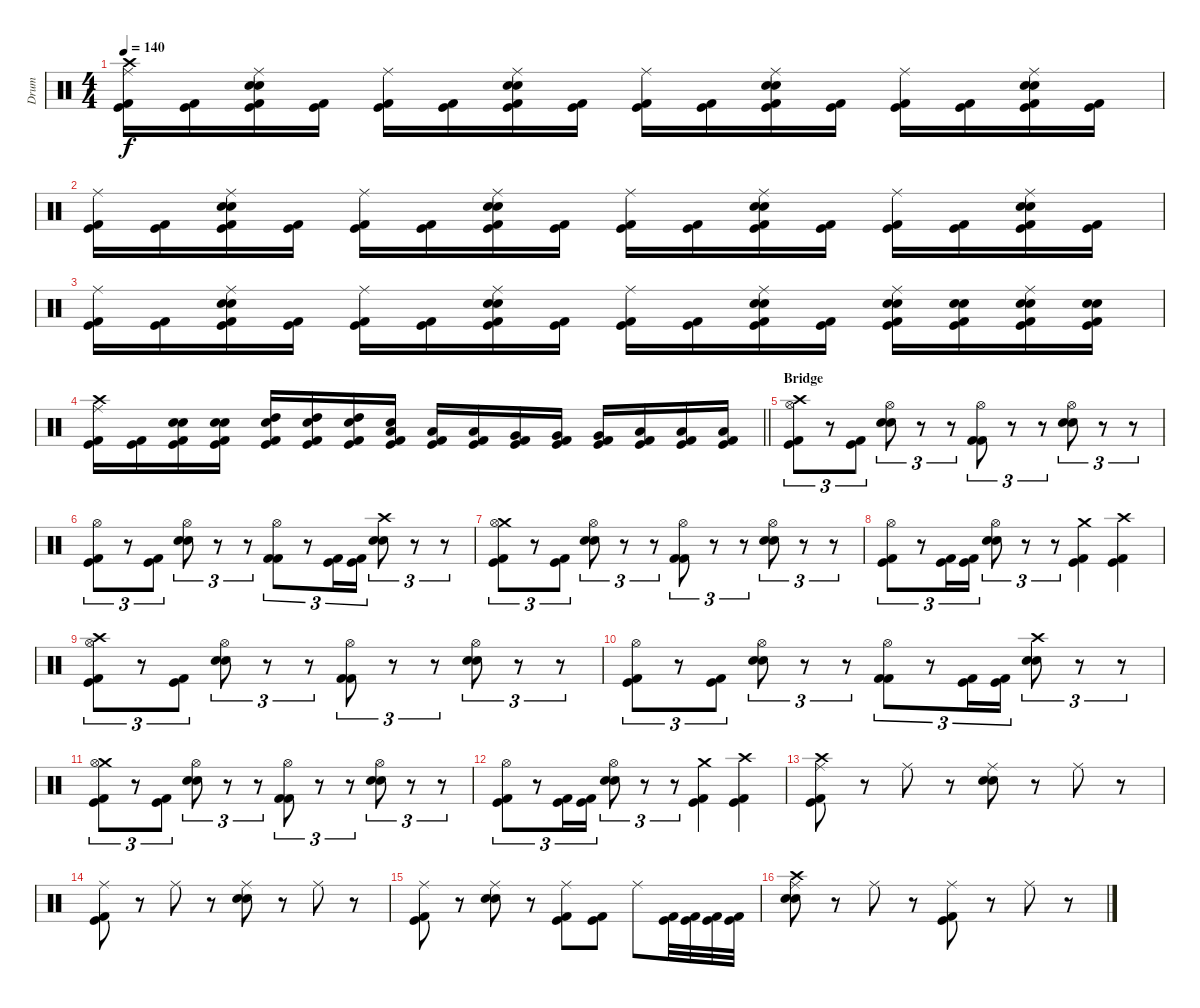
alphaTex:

\track ("Drum" "Drum") {instrument percussion}
\staff {score}
\articulation defaults
\ts (4 4)
\tempo 140
\clef neutral
\ks c
("Crash high (hit)" "Ride (middle)" "Kick (hit)" "Kick (hit) 2").16{dy f} ("Kick (hit)" "Kick (hit) 2").16 ("Ride (middle)" "Snare (hit) 2" "Electric Snare (hit)" "Kick (hit)" "Kick (hit) 2").16 ("Kick (hit)" "Kick (hit) 2").16 ("Ride (middle)" "Kick (hit)" "Kick (hit) 2").16 ("Kick (hit)" "Kick (hit) 2").16 ("Ride (middle)" "Snare (hit) 2" "Electric Snare (hit)" "Kick (hit)" "Kick (hit) 2").16 ("Kick (hit)" "Kick (hit) 2").16 ("Ride (middle)" "Kick (hit)" "Kick (hit) 2").16 ("Kick (hit)" "Kick (hit) 2").16 ("Ride (middle)" "Snare (hit) 2" "Electric Snare (hit)" "Kick (hit)" "Kick (hit) 2").16 ("Kick (hit)" "Kick (hit) 2").16 ("Ride (middle)" "Kick (hit)" "Kick (hit) 2").16 ("Kick (hit)" "Kick (hit) 2").16 ("Ride (middle)" "Snare (hit) 2" "Electric Snare (hit)" "Kick (hit)" "Kick (hit) 2").16 ("Kick (hit)" "Kick (hit) 2").16 |
("Ride (middle)" "Kick (hit)" "Kick (hit) 2").16 ("Kick (hit)" "Kick (hit) 2").16 ("Ride (middle)" "Snare (hit) 2" "Electric Snare (hit)" "Kick (hit)" "Kick (hit) 2").16 ("Kick (hit)" "Kick (hit) 2").16 ("Ride (middle)" "Kick (hit)" "Kick (hit) 2").16 ("Kick (hit)" "Kick (hit) 2").16 ("Ride (middle)" "Snare (hit) 2" "Electric Snare (hit)" "Kick (hit)" "Kick (hit) 2").16 ("Kick (hit)" "Kick (hit) 2").16 ("Ride (middle)" "Kick (hit)" "Kick (hit) 2").16 ("Kick (hit)" "Kick (hit) 2").16 ("Ride (middle)" "Snare (hit) 2" "Electric Snare (hit)" "Kick (hit)" "Kick (hit) 2").16 ("Kick (hit)" "Kick (hit) 2").16 ("Ride (middle)" "Kick (hit)" "Kick (hit) 2").16 ("Kick (hit)" "Kick (hit) 2").16 ("Ride (middle)" "Snare (hit) 2" "Electric Snare (hit)" "Kick (hit)" "Kick (hit) 2").16 ("Kick (hit)" "Kick (hit) 2").16 |
("Ride (middle)" "Kick (hit)" "Kick (hit) 2").16 ("Kick (hit)" "Kick (hit) 2").16 ("Ride (middle)" "Snare (hit) 2" "Electric Snare (hit)" "Kick (hit)" "Kick (hit) 2").16 ("Kick (hit)" "Kick (hit) 2").16 ("Ride (middle)" "Kick (hit)" "Kick (hit) 2").16 ("Kick (hit)" "Kick (hit) 2").16 ("Ride (middle)" "Snare (hit) 2" "Electric Snare (hit)" "Kick (hit)" "Kick (hit) 2").16 ("Kick (hit)" "Kick (hit) 2").16 ("Ride (middle)" "Kick (hit)" "Kick (hit) 2").16 ("Kick (hit)" "Kick (hit) 2").16 ("Ride (middle)" "Snare (hit) 2" "Electric Snare (hit)" "Kick (hit)" "Kick (hit) 2").16 ("Kick (hit)" "Kick (hit) 2").16 ("Ride (middle)" "Snare (hit) 2" "Electric Snare (hit)" "Kick (hit)" "Kick (hit) 2").16 ("Snare (hit) 2" "Electric Snare (hit)" "Kick (hit)" "Kick (hit) 2").16 ("Ride (middle)" "Snare (hit) 2" "Electric Snare (hit)" "Kick (hit)" "Kick (hit) 2").16 ("Snare (hit) 2" "Electric Snare (hit)" "Kick (hit)" "Kick (hit) 2").16 |
\barLineRight lightlight
("Crash high (hit)" "Ride (middle)" "Kick (hit)" "Kick (hit) 2").16 ("Kick (hit)" "Kick (hit) 2").16 ("Snare (hit) 2" "Electric Snare (hit)" "Kick (hit)" "Kick (hit) 2").16 ("Snare (hit) 2" "Electric Snare (hit)" "Kick (hit)" "Kick (hit) 2").16 ("High Tom (hit)" "Electric Snare (hit)" "Kick (hit)" "Kick (hit) 2").16 ("High Tom (hit)" "Electric Snare (hit)" "Kick (hit)" "Kick (hit) 2").16 ("High Tom (hit)" "Electric Snare (hit)" "Kick (hit)" "Kick (hit) 2").16 ("Low Tom (hit)" "Electric Snare (hit)" "Kick (hit)" "Kick (hit) 2").16 ("Low Tom (hit)" "Kick (hit)" "Kick (hit) 2").16 ("Low Tom (hit)" "Kick (hit)" "Kick (hit) 2").16 ("Very Low Tom (hit)" "Kick (hit)" "Kick (hit) 2").16 ("Very Low Tom (hit)" "Kick (hit)" "Kick (hit) 2").16 ("Very Low Tom (hit)" "Kick (hit)" "Kick (hit) 2").16 ("Low Floor Tom (hit)" "Kick (hit)" "Kick (hit) 2").16 ("Low Floor Tom (hit)" "Kick (hit)" "Kick (hit) 2").16 ("Low Floor Tom (hit)" "Kick (hit)" "Kick (hit) 2").16 |
\section ("" "Bridge")
("Crash high (hit)" "Hi-Hat (open)" "Kick (hit)" "Kick (hit) 2").8{tu (3 2)} r.8{tu (3 2)} ("Kick (hit)" "Kick (hit) 2").8{tu (3 2)} ("Hi-Hat (open)" "Snare (hit) 2" "Electric Snare (hit)").8{tu (3 2)} r.8{tu (3 2)} r.8{tu (3 2)} ("Hi-Hat (open)" "Kick (hit) 2" "Kick (hit) 2").8{tu (3 2)} r.8{tu (3 2)} r.8{tu (3 2)} ("Hi-Hat (open)" "Snare (hit) 2" "Electric Snare (hit)").8{tu (3 2)} r.8{tu (3 2)} r.8{tu (3 2)} |
("Hi-Hat (open)" "Kick (hit)" "Kick (hit) 2").8{tu (3 2)} r.8{tu (3 2)} ("Kick (hit)" "Kick (hit) 2").8{tu (3 2)} ("Hi-Hat (open)" "Snare (hit) 2" "Electric Snare (hit)").8{tu (3 2)} r.8{tu (3 2)} r.8{tu (3 2)} ("Hi-Hat (open)" "Kick (hit) 2" "Kick (hit) 2").8{tu (3 2)} r.8{tu (3 2)} ("Kick (hit)" "Kick (hit) 2").16{tu (3 2)} ("Kick (hit)" "Kick (hit) 2").16{tu (3 2)} ("Crash high (hit)" "Snare (hit) 2" "Electric Snare (hit)").8{tu (3 2)} r.8{tu (3 2)} r.8{tu (3 2)} |
("Crash medium (hit)" "Hi-Hat (open)" "Kick (hit)" "Kick (hit) 2").8{tu (3 2)} r.8{tu (3 2)} ("Kick (hit)" "Kick (hit) 2").8{tu (3 2)} ("Hi-Hat (open)" "Snare (hit) 2" "Electric Snare (hit)").8{tu (3 2)} r.8{tu (3 2)} r.8{tu (3 2)} ("Hi-Hat (open)" "Kick (hit) 2" "Kick (hit) 2").8{tu (3 2)} r.8{tu (3 2)} r.8{tu (3 2)} ("Hi-Hat (open)" "Snare (hit) 2" "Electric Snare (hit)").8{tu (3 2)} r.8{tu (3 2)} r.8{tu (3 2)} |
("Hi-Hat (open)" "Kick (hit)" "Kick (hit) 2").8{tu (3 2)} r.8{tu (3 2)} ("Kick (hit)" "Kick (hit) 2").16{tu (3 2)} ("Kick (hit)" "Kick (hit) 2").16{tu (3 2)} ("Hi-Hat (open)" "Electric Snare (hit)" "Snare (hit) 2").8{tu (3 2)} r.8{tu (3 2)} r.8{tu (3 2)} ("Crash medium (hit)" "Kick (hit)" "Kick (hit) 2").4 ("Crash high (hit)" "Kick (hit)" "Kick (hit) 2").4 |
("Crash high (hit)" "Hi-Hat (open)" "Kick (hit)" "Kick (hit) 2").8{tu (3 2)} r.8{tu (3 2)} ("Kick (hit)" "Kick (hit) 2").8{tu (3 2)} ("Hi-Hat (open)" "Snare (hit) 2" "Electric Snare (hit)").8{tu (3 2)} r.8{tu (3 2)} r.8{tu (3 2)} ("Hi-Hat (open)" "Kick (hit) 2" "Kick (hit) 2").8{tu (3 2)} r.8{tu (3 2)} r.8{tu (3 2)} ("Hi-Hat (open)" "Snare (hit) 2" "Electric Snare (hit)").8{tu (3 2)} r.8{tu (3 2)} r.8{tu (3 2)} |
("Hi-Hat (open)" "Kick (hit)" "Kick (hit) 2").8{tu (3 2)} r.8{tu (3 2)} ("Kick (hit)" "Kick (hit) 2").8{tu (3 2)} ("Hi-Hat (open)" "Snare (hit) 2" "Electric Snare (hit)").8{tu (3 2)} r.8{tu (3 2)} r.8{tu (3 2)} ("Hi-Hat (open)" "Kick (hit) 2" "Kick (hit) 2").8{tu (3 2)} r.8{tu (3 2)} ("Kick (hit)" "Kick (hit) 2").16{tu (3 2)} ("Kick (hit)" "Kick (hit) 2").16{tu (3 2)} ("Crash high (hit)" "Snare (hit) 2" "Electric Snare (hit)").8{tu (3 2)} r.8{tu (3 2)} r.8{tu (3 2)} |
("Crash medium (hit)" "Hi-Hat (open)" "Kick (hit)" "Kick (hit) 2").8{tu (3 2)} r.8{tu (3 2)} ("Kick (hit)" "Kick (hit) 2").8{tu (3 2)} ("Hi-Hat (open)" "Snare (hit) 2" "Electric Snare (hit)").8{tu (3 2)} r.8{tu (3 2)} r.8{tu (3 2)} ("Hi-Hat (open)" "Kick (hit) 2" "Kick (hit) 2").8{tu (3 2)} r.8{tu (3 2)} r.8{tu (3 2)} ("Hi-Hat (open)" "Snare (hit) 2" "Electric Snare (hit)").8{tu (3 2)} r.8{tu (3 2)} r.8{tu (3 2)} |
("Hi-Hat (open)" "Kick (hit)" "Kick (hit) 2").8{tu (3 2)} r.8{tu (3 2)} ("Kick (hit)" "Kick (hit) 2").16{tu (3 2)} ("Kick (hit)" "Kick (hit) 2").16{tu (3 2)} ("Hi-Hat (open)" "Electric Snare (hit)" "Snare (hit) 2").8{tu (3 2)} r.8{tu (3 2)} r.8{tu (3 2)} ("Crash medium (hit)" "Kick (hit)" "Kick (hit) 2").4 ("Crash high (hit)" "Kick (hit)" "Kick (hit) 2").4 |
("Crash high (hit)" "Ride (middle)" "Kick (hit)" "Kick (hit) 2").8 r.8 "Ride (middle)".8 r.8 ("Ride (middle)" "Snare (hit) 2" "Electric Snare (hit)").8 r.8 "Ride (middle)".8 r.8 |
("Ride (middle)" "Kick (hit)" "Kick (hit) 2").8 r.8 "Ride (middle)".8 r.8 ("Ride (middle)" "Snare (hit) 2" "Electric Snare (hit)").8 r.8 "Ride (middle)".8 r.8 |
("Ride (middle)" "Kick (hit)" "Kick (hit) 2").8 r.8 ("Ride (middle)" "Snare (hit) 2" "Electric Snare (hit)").8 r.8 ("Ride (middle)" "Kick (hit)" "Kick (hit) 2").8 ("Kick (hit)" "Kick (hit) 2").8 "Ride (middle)".8 ("Kick (hit)" "Kick (hit) 2").32 ("Kick (hit)" "Kick (hit) 2").32 ("Kick (hit)" "Kick (hit) 2").32 ("Kick (hit)" "Kick (hit) 2").32 |
("Crash high (hit)" "Ride (middle)" "Snare (hit) 2" "Electric Snare (hit)").8 r.8 "Ride (middle)".8 r.8 ("Ride (middle)" "Kick (hit)" "Kick (hit) 2").8 r.8 "Ride (middle)".8 r.8
